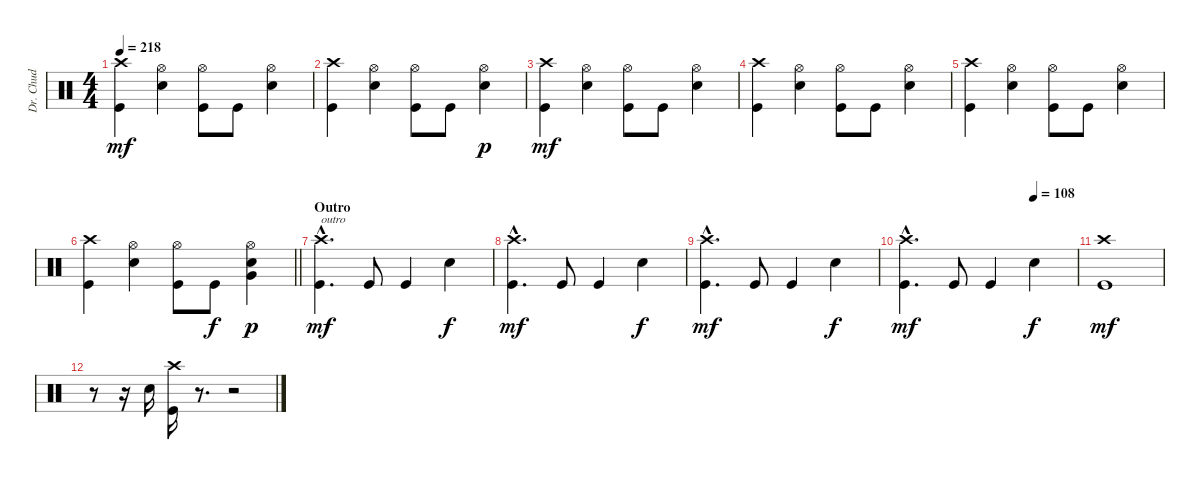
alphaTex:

\track ("Dr. Chud" "Dr. Chud") {instrument percussion}
\staff {score}
\articulation defaults
\ts (4 4)
\tempo 218
\clef neutral
\ks c
("Crash high (hit)" "Kick (hit)").4{dy mf} ("Hi-Hat (open)" "Electric Snare (hit)").4 ("Hi-Hat (open)" "Kick (hit)").8 "Kick (hit)".8 ("Hi-Hat (open)" "Electric Snare (hit)").4 |
("Crash high (hit)" "Kick (hit)").4 ("Hi-Hat (open)" "Electric Snare (hit)").4 ("Hi-Hat (open)" "Kick (hit)").8 "Kick (hit)".8 ("Hi-Hat (open)" "Electric Snare (hit)").4{dy p} |
("Crash high (hit)" "Kick (hit)").4{dy mf} ("Hi-Hat (open)" "Electric Snare (hit)").4 ("Hi-Hat (open)" "Kick (hit)").8 "Kick (hit)".8 ("Hi-Hat (open)" "Electric Snare (hit)").4 |
("Crash high (hit)" "Kick (hit)").4 ("Hi-Hat (open)" "Electric Snare (hit)").4 ("Hi-Hat (open)" "Kick (hit)").8 "Kick (hit)".8 ("Hi-Hat (open)" "Electric Snare (hit)").4 |
("Crash high (hit)" "Kick (hit)").4 ("Hi-Hat (open)" "Electric Snare (hit)").4 ("Hi-Hat (open)" "Kick (hit)").8 "Kick (hit)".8 ("Hi-Hat (open)" "Electric Snare (hit)").4 |
\barLineRight lightlight
("Crash high (hit)" "Kick (hit)").4 ("Hi-Hat (open)" "Electric Snare (hit)").4 ("Hi-Hat (open)" "Kick (hit)").8 "Kick (hit)".8{dy f} ("Hi-Hat (open)" "Very Low Tom (hit)" "Electric Snare (hit)").4{dy p} |
\section ("" "Outro")
("Crash high (hit)"{hac} "Kick (hit)"{hac}).4{d txt "outro" dy mf} "Kick (hit)".8 "Kick (hit)".4 "Electric Snare (hit)".4{dy f} |
("Crash high (hit)"{hac} "Kick (hit)"{hac}).4{d dy mf} "Kick (hit)".8 "Kick (hit)".4 "Electric Snare (hit)".4{dy f} |
("Crash high (hit)"{hac} "Kick (hit)"{hac}).4{d dy mf} "Kick (hit)".8 "Kick (hit)".4 "Electric Snare (hit)".4{dy f} |
\tempo (108 0.75)
("Crash high (hit)"{hac} "Kick (hit)"{hac}).4{d dy mf} "Kick (hit)".8 "Kick (hit)".4 "Electric Snare (hit)".4{dy f} |
("Crash high (hit)" "Kick (hit)").1{dy mf} |
r.8 r.16 "Electric Snare (hit)".16 ("Crash high (hit)" "Kick (hit)").16 r.8{d} r.2
